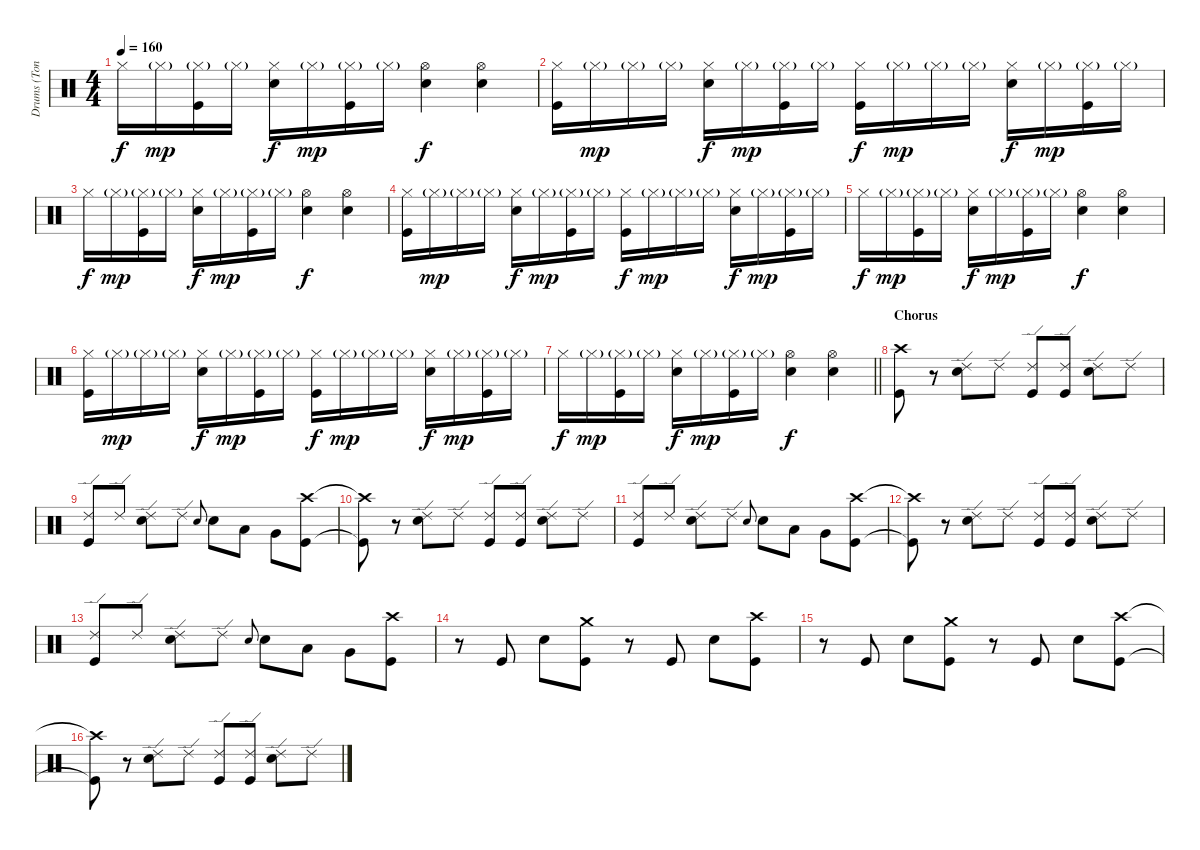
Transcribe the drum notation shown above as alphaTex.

\track ("Drums (Tony)" "Drums (Ton") {instrument percussion}
\staff {score}
\articulation defaults
\ts (4 4)
\tempo 160
\clef neutral
\ks c "Hi-Hat (closed)".16{dy f} "Hi-Hat (closed)"{g}.16{dy mp}
("Hi-Hat (closed)"{g} "Kick (hit)").16 "Hi-Hat (closed)"{g}.16 ("Hi-Hat (closed)" "Snare (hit) 2").16{dy f} "Hi-Hat (closed)"{g}.16{dy mp} ("Hi-Hat (closed)"{g} "Kick (hit)").16 "Hi-Hat (closed)"{g}.16 ("Hi-Hat (open)" "Snare (hit) 2").4{dy f} ("Hi-Hat (open)" "Snare (hit) 2").4 |
("Hi-Hat (closed)" "Kick (hit)").16 "Hi-Hat (closed)"{g}.16{dy mp} "Hi-Hat (closed)"{g}.16 "Hi-Hat (closed)"{g}.16 ("Hi-Hat (closed)" "Snare (hit) 2").16{dy f} "Hi-Hat (closed)"{g}.16{dy mp} ("Hi-Hat (closed)"{g} "Kick (hit)").16 "Hi-Hat (closed)"{g}.16 ("Hi-Hat (closed)" "Kick (hit)").16{dy f} "Hi-Hat (closed)"{g}.16{dy mp} "Hi-Hat (closed)"{g}.16 "Hi-Hat (closed)"{g}.16 ("Hi-Hat (closed)" "Snare (hit) 2").16{dy f} "Hi-Hat (closed)"{g}.16{dy mp} ("Hi-Hat (closed)"{g} "Kick (hit)").16 "Hi-Hat (closed)"{g}.16 |
"Hi-Hat (closed)".16{dy f} "Hi-Hat (closed)"{g}.16{dy mp} ("Hi-Hat (closed)"{g} "Kick (hit)").16 "Hi-Hat (closed)"{g}.16 ("Hi-Hat (closed)" "Snare (hit) 2").16{dy f} "Hi-Hat (closed)"{g}.16{dy mp} ("Hi-Hat (closed)"{g} "Kick (hit)").16 "Hi-Hat (closed)"{g}.16 ("Hi-Hat (open)" "Snare (hit) 2").4{dy f} ("Hi-Hat (open)" "Snare (hit) 2").4 |
("Hi-Hat (closed)" "Kick (hit)").16 "Hi-Hat (closed)"{g}.16{dy mp} "Hi-Hat (closed)"{g}.16 "Hi-Hat (closed)"{g}.16 ("Hi-Hat (closed)" "Snare (hit) 2").16{dy f} "Hi-Hat (closed)"{g}.16{dy mp} ("Hi-Hat (closed)"{g} "Kick (hit)").16 "Hi-Hat (closed)"{g}.16 ("Hi-Hat (closed)" "Kick (hit)").16{dy f} "Hi-Hat (closed)"{g}.16{dy mp} "Hi-Hat (closed)"{g}.16 "Hi-Hat (closed)"{g}.16 ("Hi-Hat (closed)" "Snare (hit) 2").16{dy f} "Hi-Hat (closed)"{g}.16{dy mp} ("Hi-Hat (closed)"{g} "Kick (hit)").16 "Hi-Hat (closed)"{g}.16 |
"Hi-Hat (closed)".16{dy f} "Hi-Hat (closed)"{g}.16{dy mp} ("Hi-Hat (closed)"{g} "Kick (hit)").16 "Hi-Hat (closed)"{g}.16 ("Hi-Hat (closed)" "Snare (hit) 2").16{dy f} "Hi-Hat (closed)"{g}.16{dy mp} ("Hi-Hat (closed)"{g} "Kick (hit)").16 "Hi-Hat (closed)"{g}.16 ("Hi-Hat (open)" "Snare (hit) 2").4{dy f} ("Hi-Hat (open)" "Snare (hit) 2").4 |
("Hi-Hat (closed)" "Kick (hit)").16 "Hi-Hat (closed)"{g}.16{dy mp} "Hi-Hat (closed)"{g}.16 "Hi-Hat (closed)"{g}.16 ("Hi-Hat (closed)" "Snare (hit) 2").16{dy f} "Hi-Hat (closed)"{g}.16{dy mp} ("Hi-Hat (closed)"{g} "Kick (hit)").16 "Hi-Hat (closed)"{g}.16 ("Hi-Hat (closed)" "Kick (hit)").16{dy f} "Hi-Hat (closed)"{g}.16{dy mp} "Hi-Hat (closed)"{g}.16 "Hi-Hat (closed)"{g}.16 ("Hi-Hat (closed)" "Snare (hit) 2").16{dy f} "Hi-Hat (closed)"{g}.16{dy mp} ("Hi-Hat (closed)"{g} "Kick (hit)").16 "Hi-Hat (closed)"{g}.16 |
\barLineRight lightlight "Hi-Hat (closed)".16{dy f} "Hi-Hat (closed)"{g}.16{dy mp}
("Hi-Hat (closed)"{g} "Kick (hit)").16 "Hi-Hat (closed)"{g}.16 ("Hi-Hat (closed)" "Snare (hit) 2").16{dy f} "Hi-Hat (closed)"{g}.16{dy mp} ("Hi-Hat (closed)"{g} "Kick (hit)").16 "Hi-Hat (closed)"{g}.16 ("Hi-Hat (open)" "Snare (hit) 2").4{dy f} ("Hi-Hat (open)" "Snare (hit) 2").4 |
\section ("" "Chorus")
("Crash high (hit)" "Kick (hit)").8 r.8 ("Ride (edge) 2" "Snare (hit) 2").8 "Ride (edge) 2".8 ("Ride (edge) 2" "Kick (hit)").8 ("Ride (edge) 2" "Kick (hit)").8 ("Ride (edge) 2" "Snare (hit) 2").8 "Ride (edge) 2".8 |
("Ride (edge) 2" "Kick (hit)").8 "Ride (edge) 2".8 ("Ride (edge) 2" "Snare (hit) 2").8 "Ride (edge) 2".8 "Snare (hit) 2".8{gr onbeat} "Snare (hit) 2".8 "Low Tom (hit)".8 "Very Low Tom (hit)".8 ("Crash high (hit)" "Kick (hit)").8 |
("Crash high (hit)"{t} "Kick (hit)"{t}).8 r.8 ("Ride (edge) 2" "Snare (hit) 2").8 "Ride (edge) 2".8 ("Ride (edge) 2" "Kick (hit)").8 ("Ride (edge) 2" "Kick (hit)").8 ("Ride (edge) 2" "Snare (hit) 2").8 "Ride (edge) 2".8 |
("Ride (edge) 2" "Kick (hit)").8 "Ride (edge) 2".8 ("Ride (edge) 2" "Snare (hit) 2").8 "Ride (edge) 2".8 "Snare (hit) 2".8{gr onbeat} "Snare (hit) 2".8 "Low Tom (hit)".8 "Very Low Tom (hit)".8 ("Crash high (hit)" "Kick (hit)").8 |
("Crash high (hit)"{t} "Kick (hit)"{t}).8 r.8 ("Ride (edge) 2" "Snare (hit) 2").8 "Ride (edge) 2".8 ("Ride (edge) 2" "Kick (hit)").8 ("Ride (edge) 2" "Kick (hit)").8 ("Ride (edge) 2" "Snare (hit) 2").8 "Ride (edge) 2".8 |
("Ride (edge) 2" "Kick (hit)").8 "Ride (edge) 2".8 ("Ride (edge) 2" "Snare (hit) 2").8 "Ride (edge) 2".8 "Snare (hit) 2".8{gr onbeat} "Snare (hit) 2".8 "Low Tom (hit)".8 "Very Low Tom (hit)".8 ("Crash high (hit)" "Kick (hit)").8 |
r.8 "Kick (hit)".8 "Snare (hit) 2".8 ("Crash medium (hit)" "Kick (hit)").8 r.8 "Kick (hit)".8 "Snare (hit) 2".8 ("Crash high (hit)" "Kick (hit)").8 |
r.8 "Kick (hit)".8 "Snare (hit) 2".8 ("Crash medium (hit)" "Kick (hit)").8 r.8 "Kick (hit)".8 "Snare (hit) 2".8 ("Crash high (hit)" "Kick (hit)").8 |
("Crash high (hit)"{t} "Kick (hit)"{t}).8 r.8 ("Ride (edge) 2" "Snare (hit) 2").8 "Ride (edge) 2".8 ("Ride (edge) 2" "Kick (hit)").8 ("Ride (edge) 2" "Kick (hit)").8 ("Ride (edge) 2" "Snare (hit) 2").8 "Ride (edge) 2".8
